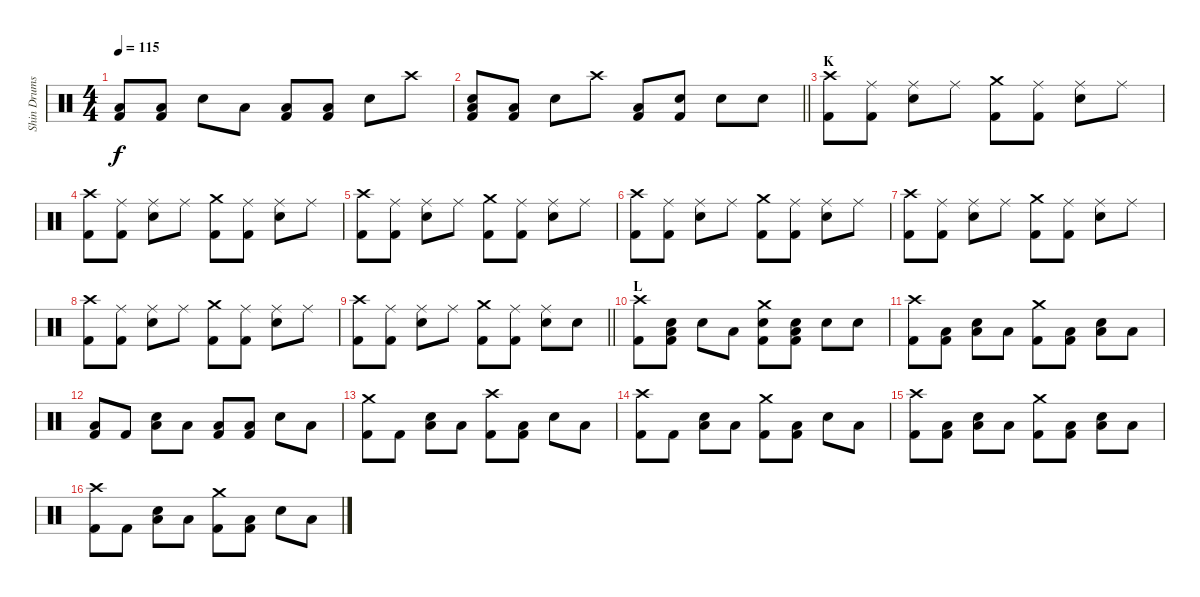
\track ("Shin Drums" "Shin Drums") {instrument percussion}
\staff {score}
\articulation defaults
\ts (4 4)
\tempo 115
\clef neutral
\ks c
("Low Floor Tom (hit)" "Kick (hit) 2").8{dy f} ("Low Floor Tom (hit)" "Kick (hit) 2").8 "Snare (hit) 2".8 "Low Floor Tom (hit)".8 ("Low Floor Tom (hit)" "Kick (hit) 2").8 ("Low Floor Tom (hit)" "Kick (hit) 2").8 "Snare (hit) 2".8 "Crash high (hit)".8 |
\barLineRight lightlight
("Low Floor Tom (hit)" "Snare (hit) 2" "Kick (hit) 2").8 ("Low Floor Tom (hit)" "Kick (hit) 2").8 "Snare (hit) 2".8 "Crash high (hit)".8 ("Low Floor Tom (hit)" "Kick (hit) 2").8 ("Snare (hit) 2" "Kick (hit) 2").8 "Snare (hit) 2".8 "Snare (hit) 2".8 |
\section ("" "K")
("Crash high (hit)" "Kick (hit) 2").8 ("Ride (middle)" "Kick (hit) 2").8 ("Ride (middle)" "Snare (hit) 2").8 "Ride (middle)".8 ("Crash medium (hit)" "Kick (hit) 2").8 ("Ride (middle)" "Kick (hit) 2").8 ("Ride (middle)" "Snare (hit) 2").8 "Ride (middle)".8 |
("Crash high (hit)" "Kick (hit) 2").8 ("Ride (middle)" "Kick (hit) 2").8 ("Ride (middle)" "Snare (hit) 2").8 "Ride (middle)".8 ("Crash medium (hit)" "Kick (hit) 2").8 ("Ride (middle)" "Kick (hit) 2").8 ("Ride (middle)" "Snare (hit) 2").8 "Ride (middle)".8 |
("Crash high (hit)" "Kick (hit) 2").8 ("Ride (middle)" "Kick (hit) 2").8 ("Ride (middle)" "Snare (hit) 2").8 "Ride (middle)".8 ("Crash medium (hit)" "Kick (hit) 2").8 ("Ride (middle)" "Kick (hit) 2").8 ("Ride (middle)" "Snare (hit) 2").8 "Ride (middle)".8 |
("Crash high (hit)" "Kick (hit) 2").8 ("Ride (middle)" "Kick (hit) 2").8 ("Ride (middle)" "Snare (hit) 2").8 "Ride (middle)".8 ("Crash medium (hit)" "Kick (hit) 2").8 ("Ride (middle)" "Kick (hit) 2").8 ("Ride (middle)" "Snare (hit) 2").8 "Ride (middle)".8 |
("Crash high (hit)" "Kick (hit) 2").8 ("Ride (middle)" "Kick (hit) 2").8 ("Ride (middle)" "Snare (hit) 2").8 "Ride (middle)".8 ("Crash medium (hit)" "Kick (hit) 2").8 ("Ride (middle)" "Kick (hit) 2").8 ("Ride (middle)" "Snare (hit) 2").8 "Ride (middle)".8 |
("Crash high (hit)" "Kick (hit) 2").8 ("Ride (middle)" "Kick (hit) 2").8 ("Ride (middle)" "Snare (hit) 2").8 "Ride (middle)".8 ("Crash medium (hit)" "Kick (hit) 2").8 ("Ride (middle)" "Kick (hit) 2").8 ("Ride (middle)" "Snare (hit) 2").8 "Ride (middle)".8 |
\barLineRight lightlight
("Crash high (hit)" "Kick (hit) 2").8 ("Ride (middle)" "Kick (hit) 2").8 ("Ride (middle)" "Snare (hit) 2").8 "Ride (middle)".8 ("Crash medium (hit)" "Kick (hit) 2").8 ("Ride (middle)" "Kick (hit) 2").8 ("Ride (middle)" "Snare (hit) 2").8 "Snare (hit) 2".8 |
\section ("" "L")
("Crash high (hit)" "Kick (hit) 2").8 ("Low Floor Tom (hit)" "Snare (hit) 2" "Kick (hit) 2").8 "Snare (hit) 2".8 "Low Floor Tom (hit)".8 ("Crash medium (hit)" "Snare (hit) 2" "Kick (hit) 2").8 ("Low Floor Tom (hit)" "Snare (hit) 2" "Kick (hit) 2").8 "Snare (hit) 2".8 "Snare (hit) 2".8 |
("Crash high (hit)" "Kick (hit) 2").8 ("Low Floor Tom (hit)" "Kick (hit) 2").8 ("Low Floor Tom (hit)" "Snare (hit) 2").8 "Low Floor Tom (hit)".8 ("Crash medium (hit)" "Kick (hit) 2").8 ("Low Floor Tom (hit)" "Kick (hit) 2").8 ("Low Floor Tom (hit)" "Snare (hit) 2").8 "Low Floor Tom (hit)".8 |
("Low Floor Tom (hit)" "Kick (hit) 2").8 "Kick (hit) 2".8 ("Low Floor Tom (hit)" "Snare (hit) 2").8 "Low Floor Tom (hit)".8 ("Low Floor Tom (hit)" "Kick (hit) 2").8 ("Low Floor Tom (hit)" "Kick (hit) 2").8 "Snare (hit) 2".8 "Low Floor Tom (hit)".8 |
("Crash medium (hit)" "Kick (hit) 2").8 "Kick (hit) 2".8 ("Low Floor Tom (hit)" "Snare (hit) 2").8 "Low Floor Tom (hit)".8 ("Crash high (hit)" "Kick (hit) 2").8 ("Low Floor Tom (hit)" "Kick (hit) 2").8 "Snare (hit) 2".8 "Low Floor Tom (hit)".8 |
("Crash high (hit)" "Kick (hit) 2").8 "Kick (hit) 2".8 ("Low Floor Tom (hit)" "Snare (hit) 2").8 "Low Floor Tom (hit)".8 ("Crash medium (hit)" "Kick (hit) 2").8 ("Low Floor Tom (hit)" "Kick (hit) 2").8 "Snare (hit) 2".8 "Low Floor Tom (hit)".8 |
("Crash high (hit)" "Kick (hit) 2").8 ("Low Floor Tom (hit)" "Kick (hit) 2").8 ("Low Floor Tom (hit)" "Snare (hit) 2").8 "Low Floor Tom (hit)".8 ("Crash medium (hit)" "Kick (hit) 2").8 ("Low Floor Tom (hit)" "Kick (hit) 2").8 ("Low Floor Tom (hit)" "Snare (hit) 2").8 "Low Floor Tom (hit)".8 |
("Crash high (hit)" "Kick (hit) 2").8 "Kick (hit) 2".8 ("Low Floor Tom (hit)" "Snare (hit) 2").8 "Low Floor Tom (hit)".8 ("Crash medium (hit)" "Kick (hit) 2").8 ("Low Floor Tom (hit)" "Kick (hit) 2").8 "Snare (hit) 2".8 "Low Floor Tom (hit)".8
